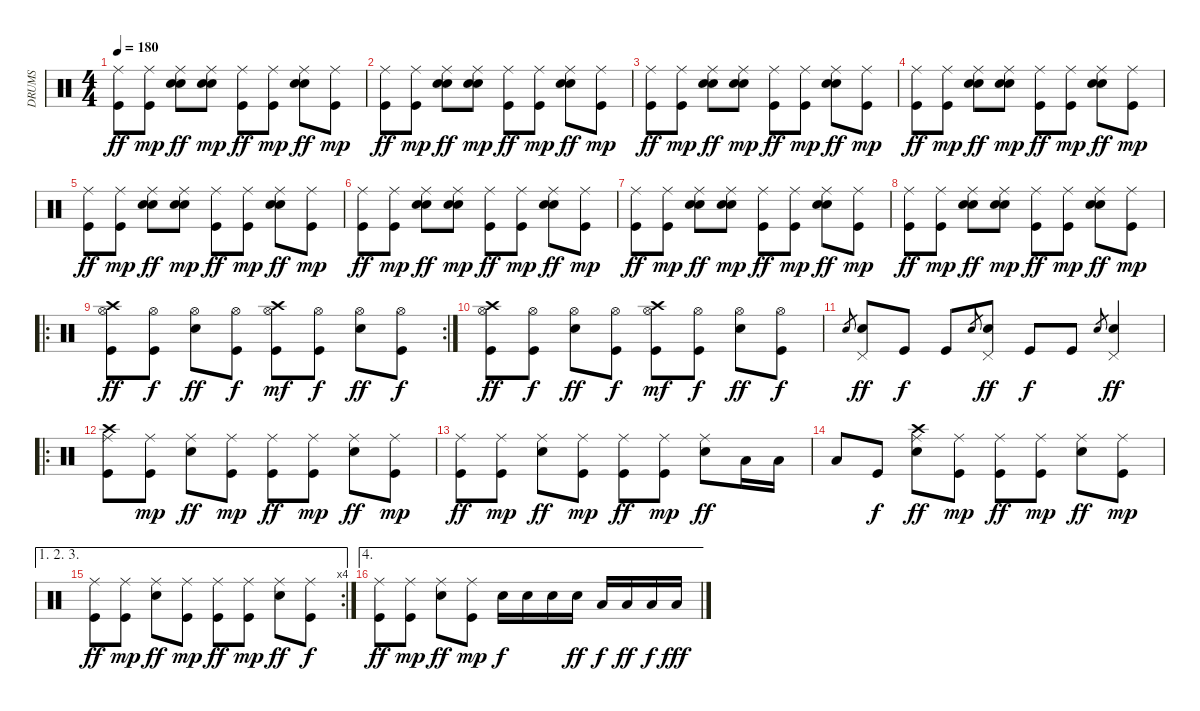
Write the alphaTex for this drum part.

\track ("DRUMS" "DRUMS") {instrument percussion}
\staff {score}
\articulation defaults
\ts (4 4)
\tempo 180
\clef neutral
\ks c
("Ride (middle)" "Kick (hit)").8{dy ff} ("Ride (middle)" "Kick (hit)").8{dy mp} ("Hand Clap (hit)" "Ride (middle)" "Electric Snare (hit)").8{dy ff} ("Hand Clap (hit)" "Ride (middle)" "Electric Snare (hit)").8{dy mp} ("Ride (middle)" "Kick (hit)").8{dy ff} ("Ride (middle)" "Kick (hit)").8{dy mp} ("Hand Clap (hit)" "Ride (middle)" "Electric Snare (hit)").8{dy ff} ("Ride (middle)" "Kick (hit)").8{dy mp} |
("Ride (middle)" "Kick (hit)").8{dy ff} ("Ride (middle)" "Kick (hit)").8{dy mp} ("Hand Clap (hit)" "Ride (middle)" "Electric Snare (hit)").8{dy ff} ("Hand Clap (hit)" "Ride (middle)" "Electric Snare (hit)").8{dy mp} ("Ride (middle)" "Kick (hit)").8{dy ff} ("Ride (middle)" "Kick (hit)").8{dy mp} ("Hand Clap (hit)" "Ride (middle)" "Electric Snare (hit)").8{dy ff} ("Ride (middle)" "Kick (hit)").8{dy mp} |
("Ride (middle)" "Kick (hit)").8{dy ff} ("Ride (middle)" "Kick (hit)").8{dy mp} ("Hand Clap (hit)" "Ride (middle)" "Electric Snare (hit)").8{dy ff} ("Hand Clap (hit)" "Ride (middle)" "Electric Snare (hit)").8{dy mp} ("Ride (middle)" "Kick (hit)").8{dy ff} ("Ride (middle)" "Kick (hit)").8{dy mp} ("Hand Clap (hit)" "Ride (middle)" "Electric Snare (hit)").8{dy ff} ("Ride (middle)" "Kick (hit)").8{dy mp} |
("Ride (middle)" "Kick (hit)").8{dy ff} ("Ride (middle)" "Kick (hit)").8{dy mp} ("Hand Clap (hit)" "Ride (middle)" "Electric Snare (hit)").8{dy ff} ("Hand Clap (hit)" "Ride (middle)" "Electric Snare (hit)").8{dy mp} ("Ride (middle)" "Kick (hit)").8{dy ff} ("Ride (middle)" "Kick (hit)").8{dy mp} ("Hand Clap (hit)" "Ride (middle)" "Electric Snare (hit)").8{dy ff} ("Ride (middle)" "Kick (hit)").8{dy mp} |
("Ride (middle)" "Kick (hit)").8{dy ff} ("Ride (middle)" "Kick (hit)").8{dy mp} ("Hand Clap (hit)" "Ride (middle)" "Electric Snare (hit)").8{dy ff} ("Hand Clap (hit)" "Ride (middle)" "Electric Snare (hit)").8{dy mp} ("Ride (middle)" "Kick (hit)").8{dy ff} ("Ride (middle)" "Kick (hit)").8{dy mp} ("Hand Clap (hit)" "Ride (middle)" "Electric Snare (hit)").8{dy ff} ("Ride (middle)" "Kick (hit)").8{dy mp} |
("Ride (middle)" "Kick (hit)").8{dy ff} ("Ride (middle)" "Kick (hit)").8{dy mp} ("Hand Clap (hit)" "Ride (middle)" "Electric Snare (hit)").8{dy ff} ("Hand Clap (hit)" "Ride (middle)" "Electric Snare (hit)").8{dy mp} ("Ride (middle)" "Kick (hit)").8{dy ff} ("Ride (middle)" "Kick (hit)").8{dy mp} ("Hand Clap (hit)" "Ride (middle)" "Electric Snare (hit)").8{dy ff} ("Ride (middle)" "Kick (hit)").8{dy mp} |
("Ride (middle)" "Kick (hit)").8{dy ff} ("Ride (middle)" "Kick (hit)").8{dy mp} ("Hand Clap (hit)" "Ride (middle)" "Electric Snare (hit)").8{dy ff} ("Hand Clap (hit)" "Ride (middle)" "Electric Snare (hit)").8{dy mp} ("Ride (middle)" "Kick (hit)").8{dy ff} ("Ride (middle)" "Kick (hit)").8{dy mp} ("Hand Clap (hit)" "Ride (middle)" "Electric Snare (hit)").8{dy ff} ("Ride (middle)" "Kick (hit)").8{dy mp} |
("Ride (middle)" "Kick (hit)").8{dy ff} ("Ride (middle)" "Kick (hit)").8{dy mp} ("Hand Clap (hit)" "Ride (middle)" "Electric Snare (hit)").8{dy ff} ("Hand Clap (hit)" "Ride (middle)" "Electric Snare (hit)").8{dy mp} ("Ride (middle)" "Kick (hit)").8{dy ff} ("Ride (middle)" "Kick (hit)").8{dy mp} ("Hand Clap (hit)" "Ride (middle)" "Electric Snare (hit)").8{dy ff} ("Ride (middle)" "Kick (hit)").8{dy mp} |
\ro
\rc 2
("Crash high (hit)" "Hi-Hat (open)" "Kick (hit)").8{dy ff} ("Hi-Hat (open)" "Kick (hit)").8{dy f} ("Hi-Hat (open)" "Electric Snare (hit)").8{dy ff} ("Hi-Hat (open)" "Kick (hit)").8{dy f} ("Hi-Hat (open)" "Crash high (hit)" "Kick (hit)").8{dy mf} ("Hi-Hat (open)" "Kick (hit)").8{dy f} ("Hi-Hat (open)" "Electric Snare (hit)").8{dy ff} ("Hi-Hat (open)" "Kick (hit)").8{dy f} |
("Crash high (hit)" "Hi-Hat (open)" "Kick (hit)").8{dy ff} ("Hi-Hat (open)" "Kick (hit)").8{dy f} ("Hi-Hat (open)" "Electric Snare (hit)").8{dy ff} ("Hi-Hat (open)" "Kick (hit)").8{dy f} ("Hi-Hat (open)" "Crash high (hit)" "Kick (hit)").8{dy mf} ("Hi-Hat (open)" "Kick (hit)").8{dy f} ("Hi-Hat (open)" "Electric Snare (hit)").8{dy ff} ("Hi-Hat (open)" "Kick (hit)").8{dy f} |
"Electric Snare (hit)".8{gr} ("Pedal Hi-Hat (hit)" "Electric Snare (hit)").8{dy ff} "Kick (hit)".8{dy f} "Kick (hit)".8 "Electric Snare (hit)".8{gr} ("Pedal Hi-Hat (hit)" "Electric Snare (hit)").8{dy ff} "Kick (hit)".8{dy f} "Kick (hit)".8 "Electric Snare (hit)".8{gr} ("Pedal Hi-Hat (hit)" "Electric Snare (hit)").4{dy ff} |
\ro
("Crash high (hit)" "Ride (middle)" "Kick (hit)").8 ("Ride (middle)" "Kick (hit)").8{dy mp} ("Ride (middle)" "Electric Snare (hit)").8{dy ff} ("Ride (middle)" "Kick (hit)").8{dy mp} ("Ride (middle)" "Kick (hit)").8{dy ff} ("Ride (middle)" "Kick (hit)").8{dy mp} ("Ride (middle)" "Electric Snare (hit)").8{dy ff} ("Ride (middle)" "Kick (hit)").8{dy mp} |
("Ride (middle)" "Kick (hit)").8{dy ff} ("Ride (middle)" "Kick (hit)").8{dy mp} ("Ride (middle)" "Electric Snare (hit)").8{dy ff} ("Ride (middle)" "Kick (hit)").8{dy mp} ("Ride (middle)" "Kick (hit)").8{dy ff} ("Ride (middle)" "Kick (hit)").8{dy mp} ("Ride (middle)" "Electric Snare (hit)").8{dy ff} "Low Tom (hit)".16 "Low Floor Tom (hit)".16 |
"Low Floor Tom (hit)".8 "Kick (hit)".8{dy f} ("Crash high (hit)" "Ride (middle)" "Electric Snare (hit)").8{dy ff} ("Ride (middle)" "Kick (hit)").8{dy mp} ("Ride (middle)" "Kick (hit)").8{dy ff} ("Ride (middle)" "Kick (hit)").8{dy mp} ("Ride (middle)" "Electric Snare (hit)").8{dy ff} ("Ride (middle)" "Kick (hit)").8{dy mp} |
\ae (1 2 3)
\rc 4
("Ride (middle)" "Kick (hit)").8{dy ff} ("Ride (middle)" "Kick (hit)").8{dy mp} ("Ride (middle)" "Electric Snare (hit)").8{dy ff} ("Ride (middle)" "Kick (hit)").8{dy mp} ("Ride (middle)" "Kick (hit)").8{dy ff} ("Ride (middle)" "Kick (hit)").8{dy mp} ("Ride (middle)" "Electric Snare (hit)").8{dy ff} ("Ride (middle)" "Kick (hit)").8{dy f} |
\ae 4
("Ride (middle)" "Kick (hit)").8{dy ff} ("Ride (middle)" "Kick (hit)").8{dy mp} ("Ride (middle)" "Electric Snare (hit)").8{dy ff} ("Ride (middle)" "Kick (hit)").8{dy mp} "Electric Snare (hit)".16{dy f} "Electric Snare (hit)".16 "Electric Snare (hit)".16 "Electric Snare (hit)".16{dy ff} "Low Tom (hit)".16{dy f} "Low Tom (hit)".16{dy ff} "Low Floor Tom (hit)".16{dy f} "Low Floor Tom (hit)".16{dy fff}
